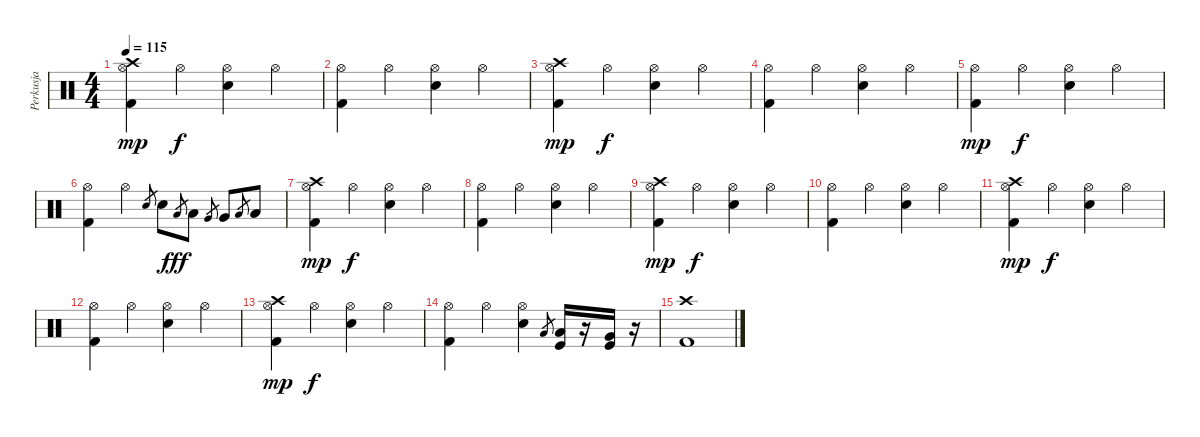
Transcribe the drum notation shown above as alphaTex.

\track ("Perkusja" "Perkusja") {instrument percussion}
\staff {score}
\articulation defaults
\ts (4 4)
\tempo 115
\clef neutral
\ks c
("Crash high (hit)" "Hi-Hat (open)" "Kick (hit) 2").4{dy mp} "Hi-Hat (open)".4{dy f} ("Hi-Hat (open)" "Electric Snare (hit)").4 "Hi-Hat (open)".4 |
("Hi-Hat (open)" "Kick (hit) 2").4 "Hi-Hat (open)".4 ("Hi-Hat (open)" "Electric Snare (hit)").4 "Hi-Hat (open)".4 |
("Crash high (hit)" "Hi-Hat (open)" "Kick (hit) 2").4{dy mp} "Hi-Hat (open)".4{dy f} ("Hi-Hat (open)" "Electric Snare (hit)").4 "Hi-Hat (open)".4 |
("Hi-Hat (open)" "Kick (hit) 2").4 "Hi-Hat (open)".4 ("Hi-Hat (open)" "Electric Snare (hit)").4 "Hi-Hat (open)".4 |
("Hi-Hat (open)" "Kick (hit) 2").4{dy mp} "Hi-Hat (open)".4{dy f} ("Hi-Hat (open)" "Electric Snare (hit)").4 "Hi-Hat (open)".4 |
("Hi-Hat (open)" "Kick (hit) 2").4 "Hi-Hat (open)".4 "Electric Snare (hit)".8{gr} "Electric Snare (hit)".8 "Low Tom (hit)".8{gr dy fff} "Low Tom (hit)".8 "Very Low Tom (hit)".8{gr} "Very Low Tom (hit)".8 "Low Floor Tom (hit)".8{gr} "Low Floor Tom (hit)".8 |
("Crash high (hit)" "Hi-Hat (open)" "Kick (hit) 2").4{dy mp} "Hi-Hat (open)".4{dy f} ("Hi-Hat (open)" "Electric Snare (hit)").4 "Hi-Hat (open)".4 |
("Hi-Hat (open)" "Kick (hit) 2").4 "Hi-Hat (open)".4 ("Hi-Hat (open)" "Electric Snare (hit)").4 "Hi-Hat (open)".4 |
("Crash high (hit)" "Hi-Hat (open)" "Kick (hit) 2").4{dy mp} "Hi-Hat (open)".4{dy f} ("Hi-Hat (open)" "Electric Snare (hit)").4 "Hi-Hat (open)".4 |
("Hi-Hat (open)" "Kick (hit) 2").4 "Hi-Hat (open)".4 ("Hi-Hat (open)" "Electric Snare (hit)").4 "Hi-Hat (open)".4 |
("Crash high (hit)" "Hi-Hat (open)" "Kick (hit) 2").4{dy mp} "Hi-Hat (open)".4{dy f} ("Hi-Hat (open)" "Electric Snare (hit)").4 "Hi-Hat (open)".4 |
("Hi-Hat (open)" "Kick (hit) 2").4 "Hi-Hat (open)".4 ("Hi-Hat (open)" "Electric Snare (hit)").4 "Hi-Hat (open)".4 |
("Crash high (hit)" "Hi-Hat (open)" "Kick (hit) 2").4{dy mp} "Hi-Hat (open)".4{dy f} ("Hi-Hat (open)" "Electric Snare (hit)").4 "Hi-Hat (open)".4 |
("Hi-Hat (open)" "Kick (hit) 2").4 "Hi-Hat (open)".4 ("Hi-Hat (open)" "Electric Snare (hit)").4 "Low Tom (hit)".8{gr} ("Low Tom (hit)" "Kick (hit)").16 r.16 ("Very Low Tom (hit)" "Kick (hit)").16 r.16 |
("Kick (hit) 2" "Crash high (hit)").1
